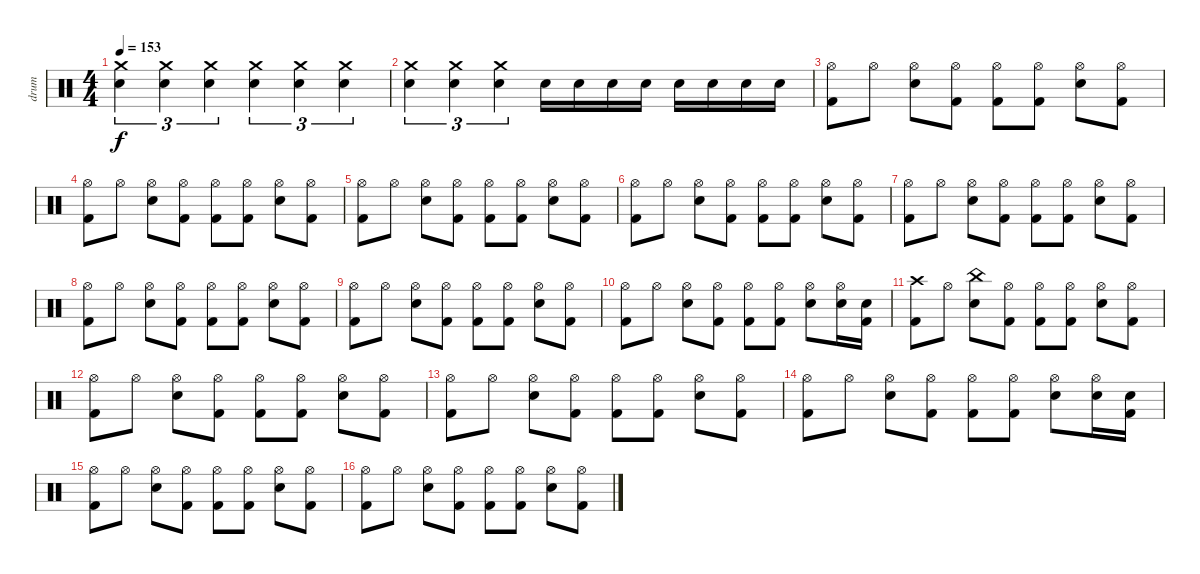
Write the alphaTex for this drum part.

\track ("drum" "drum") {instrument percussion}
\staff {score}
\articulation defaults
\ts (4 4)
\tempo 153
\clef neutral
\ks aminor
("Crash medium (hit)" "Snare (hit) 2").4{tu (3 2) dy f} ("Crash medium (hit)" "Snare (hit) 2").4{tu (3 2)} ("Crash medium (hit)" "Snare (hit) 2").4{tu (3 2)} ("Crash medium (hit)" "Snare (hit) 2").4{tu (3 2)} ("Crash medium (hit)" "Snare (hit) 2").4{tu (3 2)} ("Crash medium (hit)" "Snare (hit) 2").4{tu (3 2)} |
("Crash medium (hit)" "Snare (hit) 2").4{tu (3 2)} ("Crash medium (hit)" "Snare (hit) 2").4{tu (3 2)} ("Crash medium (hit)" "Snare (hit) 2").4{tu (3 2)} "Snare (hit) 2".16 "Snare (hit) 2".16 "Snare (hit) 2".16 "Snare (hit) 2".16 "Snare (hit) 2".16 "Snare (hit) 2".16 "Snare (hit) 2".16 "Snare (hit) 2".16 |
("Hi-Hat (open)" "Kick (hit) 2").8 "Hi-Hat (open)".8 ("Hi-Hat (open)" "Snare (hit) 2").8 ("Hi-Hat (open)" "Kick (hit) 2").8 ("Hi-Hat (open)" "Kick (hit) 2").8 ("Hi-Hat (open)" "Kick (hit) 2").8 ("Hi-Hat (open)" "Snare (hit) 2").8 ("Hi-Hat (open)" "Kick (hit) 2").8 |
("Hi-Hat (open)" "Kick (hit) 2").8 "Hi-Hat (open)".8 ("Hi-Hat (open)" "Snare (hit) 2").8 ("Hi-Hat (open)" "Kick (hit) 2").8 ("Hi-Hat (open)" "Kick (hit) 2").8 ("Hi-Hat (open)" "Kick (hit) 2").8 ("Hi-Hat (open)" "Snare (hit) 2").8 ("Hi-Hat (open)" "Kick (hit) 2").8 |
("Hi-Hat (open)" "Kick (hit) 2").8 "Hi-Hat (open)".8 ("Hi-Hat (open)" "Snare (hit) 2").8 ("Hi-Hat (open)" "Kick (hit) 2").8 ("Hi-Hat (open)" "Kick (hit) 2").8 ("Hi-Hat (open)" "Kick (hit) 2").8 ("Hi-Hat (open)" "Snare (hit) 2").8 ("Hi-Hat (open)" "Kick (hit) 2").8 |
("Hi-Hat (open)" "Kick (hit) 2").8 "Hi-Hat (open)".8 ("Hi-Hat (open)" "Snare (hit) 2").8 ("Hi-Hat (open)" "Kick (hit) 2").8 ("Hi-Hat (open)" "Kick (hit) 2").8 ("Hi-Hat (open)" "Kick (hit) 2").8 ("Hi-Hat (open)" "Snare (hit) 2").8 ("Hi-Hat (open)" "Kick (hit) 2").8 |
("Hi-Hat (open)" "Kick (hit) 2").8 "Hi-Hat (open)".8 ("Hi-Hat (open)" "Snare (hit) 2").8 ("Hi-Hat (open)" "Kick (hit) 2").8 ("Hi-Hat (open)" "Kick (hit) 2").8 ("Hi-Hat (open)" "Kick (hit) 2").8 ("Hi-Hat (open)" "Snare (hit) 2").8 ("Hi-Hat (open)" "Kick (hit) 2").8 |
("Hi-Hat (open)" "Kick (hit) 2").8 "Hi-Hat (open)".8 ("Hi-Hat (open)" "Snare (hit) 2").8 ("Hi-Hat (open)" "Kick (hit) 2").8 ("Hi-Hat (open)" "Kick (hit) 2").8 ("Hi-Hat (open)" "Kick (hit) 2").8 ("Hi-Hat (open)" "Snare (hit) 2").8 ("Hi-Hat (open)" "Kick (hit) 2").8 |
("Hi-Hat (open)" "Kick (hit) 2").8 "Hi-Hat (open)".8 ("Hi-Hat (open)" "Snare (hit) 2").8 ("Hi-Hat (open)" "Kick (hit) 2").8 ("Hi-Hat (open)" "Kick (hit) 2").8 ("Hi-Hat (open)" "Kick (hit) 2").8 ("Hi-Hat (open)" "Snare (hit) 2").8 ("Hi-Hat (open)" "Kick (hit) 2").8 |
("Hi-Hat (open)" "Kick (hit) 2").8 "Hi-Hat (open)".8 ("Hi-Hat (open)" "Snare (hit) 2").8 ("Hi-Hat (open)" "Kick (hit) 2").8 ("Hi-Hat (open)" "Kick (hit) 2").8 ("Hi-Hat (open)" "Kick (hit) 2").8 ("Hi-Hat (open)" "Snare (hit) 2").8 ("Hi-Hat (open)" "Snare (hit) 2").16 ("Snare (hit) 2" "Kick (hit) 2").16 |
("Crash high (hit)" "Kick (hit) 2").8 "Hi-Hat (open)".8 ("China (hit)" "Snare (hit) 2").8 ("Hi-Hat (open)" "Kick (hit) 2").8 ("Hi-Hat (open)" "Kick (hit) 2").8 ("Hi-Hat (open)" "Kick (hit) 2").8 ("Hi-Hat (open)" "Snare (hit) 2").8 ("Hi-Hat (open)" "Kick (hit) 2").8 |
("Hi-Hat (open)" "Kick (hit) 2").8 "Hi-Hat (open)".8 ("Hi-Hat (open)" "Snare (hit) 2").8 ("Hi-Hat (open)" "Kick (hit) 2").8 ("Hi-Hat (open)" "Kick (hit) 2").8 ("Hi-Hat (open)" "Kick (hit) 2").8 ("Hi-Hat (open)" "Snare (hit) 2").8 ("Hi-Hat (open)" "Kick (hit) 2").8 |
("Hi-Hat (open)" "Kick (hit) 2").8 "Hi-Hat (open)".8 ("Hi-Hat (open)" "Snare (hit) 2").8 ("Hi-Hat (open)" "Kick (hit) 2").8 ("Hi-Hat (open)" "Kick (hit) 2").8 ("Hi-Hat (open)" "Kick (hit) 2").8 ("Hi-Hat (open)" "Snare (hit) 2").8 ("Hi-Hat (open)" "Kick (hit) 2").8 |
("Hi-Hat (open)" "Kick (hit) 2").8 "Hi-Hat (open)".8 ("Hi-Hat (open)" "Snare (hit) 2").8 ("Hi-Hat (open)" "Kick (hit) 2").8 ("Hi-Hat (open)" "Kick (hit) 2").8 ("Hi-Hat (open)" "Kick (hit) 2").8 ("Hi-Hat (open)" "Snare (hit) 2").8 ("Hi-Hat (open)" "Snare (hit) 2").16 ("Snare (hit) 2" "Kick (hit) 2").16 |
\ks c
("Hi-Hat (open)" "Kick (hit) 2").8 "Hi-Hat (open)".8 ("Hi-Hat (open)" "Snare (hit) 2").8 ("Hi-Hat (open)" "Kick (hit) 2").8 ("Hi-Hat (open)" "Kick (hit) 2").8 ("Hi-Hat (open)" "Kick (hit) 2").8 ("Hi-Hat (open)" "Snare (hit) 2").8 ("Hi-Hat (open)" "Kick (hit) 2").8 |
("Hi-Hat (open)" "Kick (hit) 2").8 "Hi-Hat (open)".8 ("Hi-Hat (open)" "Snare (hit) 2").8 ("Hi-Hat (open)" "Kick (hit) 2").8 ("Hi-Hat (open)" "Kick (hit) 2").8 ("Hi-Hat (open)" "Kick (hit) 2").8 ("Hi-Hat (open)" "Snare (hit) 2").8 ("Hi-Hat (open)" "Kick (hit) 2").8
